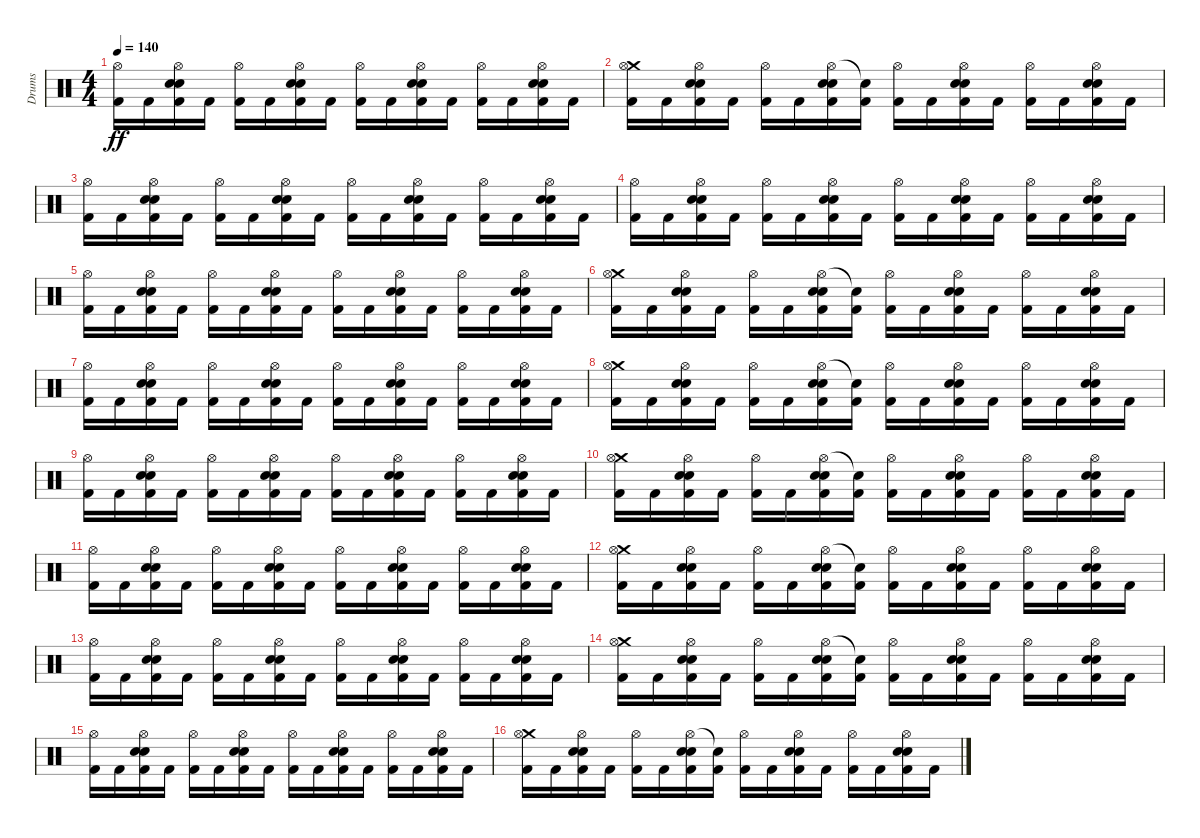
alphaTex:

\track ("Drums" "Drums") {instrument percussion}
\staff {score}
\articulation defaults
\ts (4 4)
\tempo 140
\clef neutral
\ks c
("Hi-Hat (open)" "Kick (hit) 2").16{dy ff} "Kick (hit) 2".16 ("Hi-Hat (open)" "Electric Snare (hit)" "Electric Snare (hit)" "Kick (hit) 2").16 "Kick (hit) 2".16 ("Hi-Hat (open)" "Kick (hit) 2").16 "Kick (hit) 2".16 ("Hi-Hat (open)" "Electric Snare (hit)" "Electric Snare (hit)" "Kick (hit) 2").16 "Kick (hit) 2".16 ("Hi-Hat (open)" "Kick (hit) 2").16 "Kick (hit) 2".16 ("Hi-Hat (open)" "Electric Snare (hit)" "Electric Snare (hit)" "Kick (hit) 2").16 "Kick (hit) 2".16 ("Hi-Hat (open)" "Kick (hit) 2").16 "Kick (hit) 2".16 ("Hi-Hat (open)" "Electric Snare (hit)" "Electric Snare (hit)" "Kick (hit) 2").16 "Kick (hit) 2".16 |
("Crash medium (hit)" "Hi-Hat (open)" "Kick (hit) 2").16 "Kick (hit) 2".16 ("Hi-Hat (open)" "Electric Snare (hit)" "Electric Snare (hit)" "Kick (hit) 2").16 "Kick (hit) 2".16 ("Hi-Hat (open)" "Kick (hit) 2").16 "Kick (hit) 2".16 ("Hi-Hat (open)" "Electric Snare (hit)" "Electric Snare (hit)" "Kick (hit) 2").16 ("Snare (hit)"{t} "Kick (hit) 2").16 ("Hi-Hat (open)" "Kick (hit) 2").16 "Kick (hit) 2".16 ("Hi-Hat (open)" "Electric Snare (hit)" "Electric Snare (hit)" "Kick (hit) 2").16 "Kick (hit) 2".16 ("Hi-Hat (open)" "Kick (hit) 2").16 "Kick (hit) 2".16 ("Hi-Hat (open)" "Electric Snare (hit)" "Electric Snare (hit)" "Kick (hit) 2").16 "Kick (hit) 2".16 |
("Hi-Hat (open)" "Kick (hit) 2").16 "Kick (hit) 2".16 ("Hi-Hat (open)" "Electric Snare (hit)" "Electric Snare (hit)" "Kick (hit) 2").16 "Kick (hit) 2".16 ("Hi-Hat (open)" "Kick (hit) 2").16 "Kick (hit) 2".16 ("Hi-Hat (open)" "Electric Snare (hit)" "Electric Snare (hit)" "Kick (hit) 2").16 "Kick (hit) 2".16 ("Hi-Hat (open)" "Kick (hit) 2").16 "Kick (hit) 2".16 ("Hi-Hat (open)" "Electric Snare (hit)" "Electric Snare (hit)" "Kick (hit) 2").16 "Kick (hit) 2".16 ("Hi-Hat (open)" "Kick (hit) 2").16 "Kick (hit) 2".16 ("Hi-Hat (open)" "Electric Snare (hit)" "Electric Snare (hit)" "Kick (hit) 2").16 "Kick (hit) 2".16 |
("Hi-Hat (open)" "Kick (hit) 2").16 "Kick (hit) 2".16 ("Hi-Hat (open)" "Electric Snare (hit)" "Electric Snare (hit)" "Kick (hit) 2").16 "Kick (hit) 2".16 ("Hi-Hat (open)" "Kick (hit) 2").16 "Kick (hit) 2".16 ("Hi-Hat (open)" "Electric Snare (hit)" "Electric Snare (hit)" "Kick (hit) 2").16 "Kick (hit) 2".16 ("Hi-Hat (open)" "Kick (hit) 2").16 "Kick (hit) 2".16 ("Hi-Hat (open)" "Electric Snare (hit)" "Electric Snare (hit)" "Kick (hit) 2").16 "Kick (hit) 2".16 ("Hi-Hat (open)" "Kick (hit) 2").16 "Kick (hit) 2".16 ("Hi-Hat (open)" "Electric Snare (hit)" "Electric Snare (hit)" "Kick (hit) 2").16 "Kick (hit) 2".16 |
("Hi-Hat (open)" "Kick (hit) 2").16 "Kick (hit) 2".16 ("Hi-Hat (open)" "Electric Snare (hit)" "Electric Snare (hit)" "Kick (hit) 2").16 "Kick (hit) 2".16 ("Hi-Hat (open)" "Kick (hit) 2").16 "Kick (hit) 2".16 ("Hi-Hat (open)" "Electric Snare (hit)" "Electric Snare (hit)" "Kick (hit) 2").16 "Kick (hit) 2".16 ("Hi-Hat (open)" "Kick (hit) 2").16 "Kick (hit) 2".16 ("Hi-Hat (open)" "Electric Snare (hit)" "Electric Snare (hit)" "Kick (hit) 2").16 "Kick (hit) 2".16 ("Hi-Hat (open)" "Kick (hit) 2").16 "Kick (hit) 2".16 ("Hi-Hat (open)" "Electric Snare (hit)" "Electric Snare (hit)" "Kick (hit) 2").16 "Kick (hit) 2".16 |
("Crash medium (hit)" "Hi-Hat (open)" "Kick (hit) 2").16 "Kick (hit) 2".16 ("Hi-Hat (open)" "Electric Snare (hit)" "Electric Snare (hit)" "Kick (hit) 2").16 "Kick (hit) 2".16 ("Hi-Hat (open)" "Kick (hit) 2").16 "Kick (hit) 2".16 ("Hi-Hat (open)" "Electric Snare (hit)" "Electric Snare (hit)" "Kick (hit) 2").16 ("Snare (hit)"{t} "Kick (hit) 2").16 ("Hi-Hat (open)" "Kick (hit) 2").16 "Kick (hit) 2".16 ("Hi-Hat (open)" "Electric Snare (hit)" "Electric Snare (hit)" "Kick (hit) 2").16 "Kick (hit) 2".16 ("Hi-Hat (open)" "Kick (hit) 2").16 "Kick (hit) 2".16 ("Hi-Hat (open)" "Electric Snare (hit)" "Electric Snare (hit)" "Kick (hit) 2").16 "Kick (hit) 2".16 |
("Hi-Hat (open)" "Kick (hit) 2").16 "Kick (hit) 2".16 ("Hi-Hat (open)" "Electric Snare (hit)" "Electric Snare (hit)" "Kick (hit) 2").16 "Kick (hit) 2".16 ("Hi-Hat (open)" "Kick (hit) 2").16 "Kick (hit) 2".16 ("Hi-Hat (open)" "Electric Snare (hit)" "Electric Snare (hit)" "Kick (hit) 2").16 "Kick (hit) 2".16 ("Hi-Hat (open)" "Kick (hit) 2").16 "Kick (hit) 2".16 ("Hi-Hat (open)" "Electric Snare (hit)" "Electric Snare (hit)" "Kick (hit) 2").16 "Kick (hit) 2".16 ("Hi-Hat (open)" "Kick (hit) 2").16 "Kick (hit) 2".16 ("Hi-Hat (open)" "Electric Snare (hit)" "Electric Snare (hit)" "Kick (hit) 2").16 "Kick (hit) 2".16 |
("Crash medium (hit)" "Hi-Hat (open)" "Kick (hit) 2").16 "Kick (hit) 2".16 ("Hi-Hat (open)" "Electric Snare (hit)" "Electric Snare (hit)" "Kick (hit) 2").16 "Kick (hit) 2".16 ("Hi-Hat (open)" "Kick (hit) 2").16 "Kick (hit) 2".16 ("Hi-Hat (open)" "Electric Snare (hit)" "Electric Snare (hit)" "Kick (hit) 2").16 ("Snare (hit)"{t} "Kick (hit) 2").16 ("Hi-Hat (open)" "Kick (hit) 2").16 "Kick (hit) 2".16 ("Hi-Hat (open)" "Electric Snare (hit)" "Electric Snare (hit)" "Kick (hit) 2").16 "Kick (hit) 2".16 ("Hi-Hat (open)" "Kick (hit) 2").16 "Kick (hit) 2".16 ("Hi-Hat (open)" "Electric Snare (hit)" "Electric Snare (hit)" "Kick (hit) 2").16 "Kick (hit) 2".16 |
("Hi-Hat (open)" "Kick (hit) 2").16 "Kick (hit) 2".16 ("Hi-Hat (open)" "Electric Snare (hit)" "Electric Snare (hit)" "Kick (hit) 2").16 "Kick (hit) 2".16 ("Hi-Hat (open)" "Kick (hit) 2").16 "Kick (hit) 2".16 ("Hi-Hat (open)" "Electric Snare (hit)" "Electric Snare (hit)" "Kick (hit) 2").16 "Kick (hit) 2".16 ("Hi-Hat (open)" "Kick (hit) 2").16 "Kick (hit) 2".16 ("Hi-Hat (open)" "Electric Snare (hit)" "Electric Snare (hit)" "Kick (hit) 2").16 "Kick (hit) 2".16 ("Hi-Hat (open)" "Kick (hit) 2").16 "Kick (hit) 2".16 ("Hi-Hat (open)" "Electric Snare (hit)" "Electric Snare (hit)" "Kick (hit) 2").16 "Kick (hit) 2".16 |
("Crash medium (hit)" "Hi-Hat (open)" "Kick (hit) 2").16 "Kick (hit) 2".16 ("Hi-Hat (open)" "Electric Snare (hit)" "Electric Snare (hit)" "Kick (hit) 2").16 "Kick (hit) 2".16 ("Hi-Hat (open)" "Kick (hit) 2").16 "Kick (hit) 2".16 ("Hi-Hat (open)" "Electric Snare (hit)" "Electric Snare (hit)" "Kick (hit) 2").16 ("Snare (hit)"{t} "Kick (hit) 2").16 ("Hi-Hat (open)" "Kick (hit) 2").16 "Kick (hit) 2".16 ("Hi-Hat (open)" "Electric Snare (hit)" "Electric Snare (hit)" "Kick (hit) 2").16 "Kick (hit) 2".16 ("Hi-Hat (open)" "Kick (hit) 2").16 "Kick (hit) 2".16 ("Hi-Hat (open)" "Electric Snare (hit)" "Electric Snare (hit)" "Kick (hit) 2").16 "Kick (hit) 2".16 |
("Hi-Hat (open)" "Kick (hit) 2").16 "Kick (hit) 2".16 ("Hi-Hat (open)" "Electric Snare (hit)" "Electric Snare (hit)" "Kick (hit) 2").16 "Kick (hit) 2".16 ("Hi-Hat (open)" "Kick (hit) 2").16 "Kick (hit) 2".16 ("Hi-Hat (open)" "Electric Snare (hit)" "Electric Snare (hit)" "Kick (hit) 2").16 "Kick (hit) 2".16 ("Hi-Hat (open)" "Kick (hit) 2").16 "Kick (hit) 2".16 ("Hi-Hat (open)" "Electric Snare (hit)" "Electric Snare (hit)" "Kick (hit) 2").16 "Kick (hit) 2".16 ("Hi-Hat (open)" "Kick (hit) 2").16 "Kick (hit) 2".16 ("Hi-Hat (open)" "Electric Snare (hit)" "Electric Snare (hit)" "Kick (hit) 2").16 "Kick (hit) 2".16 |
("Crash medium (hit)" "Hi-Hat (open)" "Kick (hit) 2").16 "Kick (hit) 2".16 ("Hi-Hat (open)" "Electric Snare (hit)" "Electric Snare (hit)" "Kick (hit) 2").16 "Kick (hit) 2".16 ("Hi-Hat (open)" "Kick (hit) 2").16 "Kick (hit) 2".16 ("Hi-Hat (open)" "Electric Snare (hit)" "Electric Snare (hit)" "Kick (hit) 2").16 ("Snare (hit)"{t} "Kick (hit) 2").16 ("Hi-Hat (open)" "Kick (hit) 2").16 "Kick (hit) 2".16 ("Hi-Hat (open)" "Electric Snare (hit)" "Electric Snare (hit)" "Kick (hit) 2").16 "Kick (hit) 2".16 ("Hi-Hat (open)" "Kick (hit) 2").16 "Kick (hit) 2".16 ("Hi-Hat (open)" "Electric Snare (hit)" "Electric Snare (hit)" "Kick (hit) 2").16 "Kick (hit) 2".16 |
("Hi-Hat (open)" "Kick (hit) 2").16 "Kick (hit) 2".16 ("Hi-Hat (open)" "Electric Snare (hit)" "Electric Snare (hit)" "Kick (hit) 2").16 "Kick (hit) 2".16 ("Hi-Hat (open)" "Kick (hit) 2").16 "Kick (hit) 2".16 ("Hi-Hat (open)" "Electric Snare (hit)" "Electric Snare (hit)" "Kick (hit) 2").16 "Kick (hit) 2".16 ("Hi-Hat (open)" "Kick (hit) 2").16 "Kick (hit) 2".16 ("Hi-Hat (open)" "Electric Snare (hit)" "Electric Snare (hit)" "Kick (hit) 2").16 "Kick (hit) 2".16 ("Hi-Hat (open)" "Kick (hit) 2").16 "Kick (hit) 2".16 ("Hi-Hat (open)" "Electric Snare (hit)" "Electric Snare (hit)" "Kick (hit) 2").16 "Kick (hit) 2".16 |
("Crash medium (hit)" "Hi-Hat (open)" "Kick (hit) 2").16 "Kick (hit) 2".16 ("Hi-Hat (open)" "Electric Snare (hit)" "Electric Snare (hit)" "Kick (hit) 2").16 "Kick (hit) 2".16 ("Hi-Hat (open)" "Kick (hit) 2").16 "Kick (hit) 2".16 ("Hi-Hat (open)" "Electric Snare (hit)" "Electric Snare (hit)" "Kick (hit) 2").16 ("Snare (hit)"{t} "Kick (hit) 2").16 ("Hi-Hat (open)" "Kick (hit) 2").16 "Kick (hit) 2".16 ("Hi-Hat (open)" "Electric Snare (hit)" "Electric Snare (hit)" "Kick (hit) 2").16 "Kick (hit) 2".16 ("Hi-Hat (open)" "Kick (hit) 2").16 "Kick (hit) 2".16 ("Hi-Hat (open)" "Electric Snare (hit)" "Electric Snare (hit)" "Kick (hit) 2").16 "Kick (hit) 2".16 |
("Hi-Hat (open)" "Kick (hit) 2").16 "Kick (hit) 2".16 ("Hi-Hat (open)" "Electric Snare (hit)" "Electric Snare (hit)" "Kick (hit) 2").16 "Kick (hit) 2".16 ("Hi-Hat (open)" "Kick (hit) 2").16 "Kick (hit) 2".16 ("Hi-Hat (open)" "Electric Snare (hit)" "Electric Snare (hit)" "Kick (hit) 2").16 "Kick (hit) 2".16 ("Hi-Hat (open)" "Kick (hit) 2").16 "Kick (hit) 2".16 ("Hi-Hat (open)" "Electric Snare (hit)" "Electric Snare (hit)" "Kick (hit) 2").16 "Kick (hit) 2".16 ("Hi-Hat (open)" "Kick (hit) 2").16 "Kick (hit) 2".16 ("Hi-Hat (open)" "Electric Snare (hit)" "Electric Snare (hit)" "Kick (hit) 2").16 "Kick (hit) 2".16 |
("Crash medium (hit)" "Hi-Hat (open)" "Kick (hit) 2").16 "Kick (hit) 2".16 ("Hi-Hat (open)" "Electric Snare (hit)" "Electric Snare (hit)" "Kick (hit) 2").16 "Kick (hit) 2".16 ("Hi-Hat (open)" "Kick (hit) 2").16 "Kick (hit) 2".16 ("Hi-Hat (open)" "Electric Snare (hit)" "Electric Snare (hit)" "Kick (hit) 2").16 ("Snare (hit)"{t} "Kick (hit) 2").16 ("Hi-Hat (open)" "Kick (hit) 2").16 "Kick (hit) 2".16 ("Hi-Hat (open)" "Electric Snare (hit)" "Electric Snare (hit)" "Kick (hit) 2").16 "Kick (hit) 2".16 ("Hi-Hat (open)" "Kick (hit) 2").16 "Kick (hit) 2".16 ("Hi-Hat (open)" "Electric Snare (hit)" "Electric Snare (hit)" "Kick (hit) 2").16 "Kick (hit) 2".16
